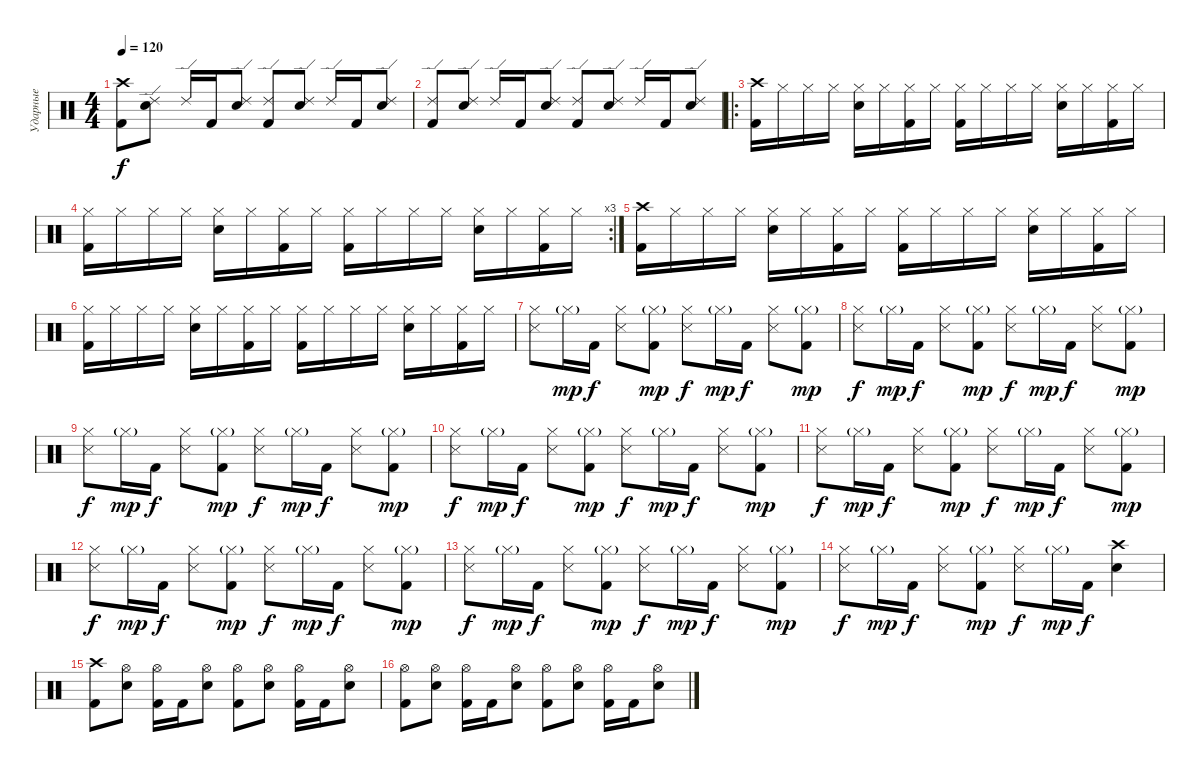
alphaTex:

\track ("Ударные" "Ударные") {instrument percussion}
\staff {score}
\articulation defaults
\ts (4 4)
\tempo 120
\clef neutral
\ks c
("Kick (hit) 2" "Crash high (hit)").8{dy f} ("Electric Snare (hit)" "Ride (edge) 2").8 "Ride (edge) 2".16 "Kick (hit) 2".16 ("Electric Snare (hit)" "Ride (edge) 2").8 ("Kick (hit) 2" "Ride (edge) 2").8 ("Electric Snare (hit)" "Ride (edge) 2").8 "Ride (edge) 2".16 "Kick (hit) 2".16 ("Electric Snare (hit)" "Ride (edge) 2").8 |
("Kick (hit) 2" "Ride (edge) 2").8 ("Electric Snare (hit)" "Ride (edge) 2").8 "Ride (edge) 2".16 "Kick (hit) 2".16 ("Electric Snare (hit)" "Ride (edge) 2").8 ("Kick (hit) 2" "Ride (edge) 2").8 ("Electric Snare (hit)" "Ride (edge) 2").8 "Ride (edge) 2".16 "Kick (hit) 2".16 ("Electric Snare (hit)" "Ride (edge) 2").8 |
\ro
("Kick (hit) 2" "Crash high (hit)").16 "Hi-Hat (closed)".16 "Hi-Hat (closed)".16 "Hi-Hat (closed)".16 ("Electric Snare (hit)" "Hi-Hat (closed)").16 "Hi-Hat (closed)".16 ("Kick (hit) 2" "Hi-Hat (closed)").16 "Hi-Hat (closed)".16 ("Kick (hit) 2" "Hi-Hat (closed)").16 "Hi-Hat (closed)".16 "Hi-Hat (closed)".16 "Hi-Hat (closed)".16 ("Electric Snare (hit)" "Hi-Hat (closed)").16 "Hi-Hat (closed)".16 ("Kick (hit) 2" "Hi-Hat (closed)").16 "Hi-Hat (closed)".16 |
\rc 3
("Kick (hit) 2" "Hi-Hat (closed)").16 "Hi-Hat (closed)".16 "Hi-Hat (closed)".16 "Hi-Hat (closed)".16 ("Electric Snare (hit)" "Hi-Hat (closed)").16 "Hi-Hat (closed)".16 ("Kick (hit) 2" "Hi-Hat (closed)").16 "Hi-Hat (closed)".16 ("Kick (hit) 2" "Hi-Hat (closed)").16 "Hi-Hat (closed)".16 "Hi-Hat (closed)".16 "Hi-Hat (closed)".16 ("Electric Snare (hit)" "Hi-Hat (closed)").16 "Hi-Hat (closed)".16 ("Kick (hit) 2" "Hi-Hat (closed)").16 "Hi-Hat (closed)".16 |
("Kick (hit) 2" "Crash high (hit)").16 "Hi-Hat (closed)".16 "Hi-Hat (closed)".16 "Hi-Hat (closed)".16 ("Electric Snare (hit)" "Hi-Hat (closed)").16 "Hi-Hat (closed)".16 ("Kick (hit) 2" "Hi-Hat (closed)").16 "Hi-Hat (closed)".16 ("Kick (hit) 2" "Hi-Hat (closed)").16 "Hi-Hat (closed)".16 "Hi-Hat (closed)".16 "Hi-Hat (closed)".16 ("Electric Snare (hit)" "Hi-Hat (closed)").16 "Hi-Hat (closed)".16 ("Kick (hit) 2" "Hi-Hat (closed)").16 "Hi-Hat (closed)".16 |
("Kick (hit) 2" "Hi-Hat (closed)").16 "Hi-Hat (closed)".16 "Hi-Hat (closed)".16 "Hi-Hat (closed)".16 ("Electric Snare (hit)" "Hi-Hat (closed)").16 "Hi-Hat (closed)".16 ("Kick (hit) 2" "Hi-Hat (closed)").16 "Hi-Hat (closed)".16 ("Kick (hit) 2" "Hi-Hat (closed)").16 "Hi-Hat (closed)".16 "Hi-Hat (closed)".16 "Hi-Hat (closed)".16 ("Electric Snare (hit)" "Hi-Hat (closed)").16 "Hi-Hat (closed)".16 ("Kick (hit) 2" "Hi-Hat (closed)").16 "Hi-Hat (closed)".16 |
("Snare (side stick) 3" "Hi-Hat (closed)").8 "Hi-Hat (closed)"{g}.16{dy mp} "Kick (hit) 2".16{dy f} ("Snare (side stick) 3" "Hi-Hat (closed)").8 ("Kick (hit) 2" "Hi-Hat (closed)"{g}).8{dy mp} ("Snare (side stick) 3" "Hi-Hat (closed)").8{dy f} "Hi-Hat (closed)"{g}.16{dy mp} "Kick (hit) 2".16{dy f} ("Snare (side stick) 3" "Hi-Hat (closed)").8 ("Kick (hit) 2" "Hi-Hat (closed)"{g}).8{dy mp} |
("Snare (side stick) 3" "Hi-Hat (closed)").8{dy f} "Hi-Hat (closed)"{g}.16{dy mp} "Kick (hit) 2".16{dy f} ("Snare (side stick) 3" "Hi-Hat (closed)").8 ("Kick (hit) 2" "Hi-Hat (closed)"{g}).8{dy mp} ("Snare (side stick) 3" "Hi-Hat (closed)").8{dy f} "Hi-Hat (closed)"{g}.16{dy mp} "Kick (hit) 2".16{dy f} ("Snare (side stick) 3" "Hi-Hat (closed)").8 ("Kick (hit) 2" "Hi-Hat (closed)"{g}).8{dy mp} |
("Snare (side stick) 3" "Hi-Hat (closed)").8{dy f} "Hi-Hat (closed)"{g}.16{dy mp} "Kick (hit) 2".16{dy f} ("Snare (side stick) 3" "Hi-Hat (closed)").8 ("Kick (hit) 2" "Hi-Hat (closed)"{g}).8{dy mp} ("Snare (side stick) 3" "Hi-Hat (closed)").8{dy f} "Hi-Hat (closed)"{g}.16{dy mp} "Kick (hit) 2".16{dy f} ("Snare (side stick) 3" "Hi-Hat (closed)").8 ("Kick (hit) 2" "Hi-Hat (closed)"{g}).8{dy mp} |
("Snare (side stick) 3" "Hi-Hat (closed)").8{dy f} "Hi-Hat (closed)"{g}.16{dy mp} "Kick (hit) 2".16{dy f} ("Snare (side stick) 3" "Hi-Hat (closed)").8 ("Kick (hit) 2" "Hi-Hat (closed)"{g}).8{dy mp} ("Snare (side stick) 3" "Hi-Hat (closed)").8{dy f} "Hi-Hat (closed)"{g}.16{dy mp} "Kick (hit) 2".16{dy f} ("Snare (side stick) 3" "Hi-Hat (closed)").8 ("Kick (hit) 2" "Hi-Hat (closed)"{g}).8{dy mp} |
("Snare (side stick) 3" "Hi-Hat (closed)").8{dy f} "Hi-Hat (closed)"{g}.16{dy mp} "Kick (hit) 2".16{dy f} ("Snare (side stick) 3" "Hi-Hat (closed)").8 ("Kick (hit) 2" "Hi-Hat (closed)"{g}).8{dy mp} ("Snare (side stick) 3" "Hi-Hat (closed)").8{dy f} "Hi-Hat (closed)"{g}.16{dy mp} "Kick (hit) 2".16{dy f} ("Snare (side stick) 3" "Hi-Hat (closed)").8 ("Kick (hit) 2" "Hi-Hat (closed)"{g}).8{dy mp} |
("Snare (side stick) 3" "Hi-Hat (closed)").8{dy f} "Hi-Hat (closed)"{g}.16{dy mp} "Kick (hit) 2".16{dy f} ("Snare (side stick) 3" "Hi-Hat (closed)").8 ("Kick (hit) 2" "Hi-Hat (closed)"{g}).8{dy mp} ("Snare (side stick) 3" "Hi-Hat (closed)").8{dy f} "Hi-Hat (closed)"{g}.16{dy mp} "Kick (hit) 2".16{dy f} ("Snare (side stick) 3" "Hi-Hat (closed)").8 ("Kick (hit) 2" "Hi-Hat (closed)"{g}).8{dy mp} |
("Snare (side stick) 3" "Hi-Hat (closed)").8{dy f} "Hi-Hat (closed)"{g}.16{dy mp} "Kick (hit) 2".16{dy f} ("Snare (side stick) 3" "Hi-Hat (closed)").8 ("Kick (hit) 2" "Hi-Hat (closed)"{g}).8{dy mp} ("Snare (side stick) 3" "Hi-Hat (closed)").8{dy f} "Hi-Hat (closed)"{g}.16{dy mp} "Kick (hit) 2".16{dy f} ("Snare (side stick) 3" "Hi-Hat (closed)").8 ("Kick (hit) 2" "Hi-Hat (closed)"{g}).8{dy mp} |
("Snare (side stick) 3" "Hi-Hat (closed)").8{dy f} "Hi-Hat (closed)"{g}.16{dy mp} "Kick (hit) 2".16{dy f} ("Snare (side stick) 3" "Hi-Hat (closed)").8 ("Kick (hit) 2" "Hi-Hat (closed)"{g}).8{dy mp} ("Snare (side stick) 3" "Hi-Hat (closed)").8{dy f} "Hi-Hat (closed)"{g}.16{dy mp} "Kick (hit) 2".16{dy f} ("Electric Snare (hit)" "Crash high (hit)").4 |
("Kick (hit) 2" "Crash high (hit)").8 ("Electric Snare (hit)" "Hi-Hat (open)").8 ("Kick (hit) 2" "Hi-Hat (open)").16 "Kick (hit) 2".16 ("Electric Snare (hit)" "Hi-Hat (open)").8 ("Kick (hit) 2" "Hi-Hat (open)").8 ("Electric Snare (hit)" "Hi-Hat (open)").8 ("Kick (hit) 2" "Hi-Hat (open)").16 "Kick (hit) 2".16 ("Electric Snare (hit)" "Hi-Hat (open)").8 |
("Kick (hit) 2" "Hi-Hat (open)").8 ("Electric Snare (hit)" "Hi-Hat (open)").8 ("Kick (hit) 2" "Hi-Hat (open)").16 "Kick (hit) 2".16 ("Electric Snare (hit)" "Hi-Hat (open)").8 ("Kick (hit) 2" "Hi-Hat (open)").8 ("Electric Snare (hit)" "Hi-Hat (open)").8 ("Kick (hit) 2" "Hi-Hat (open)").16 "Kick (hit) 2".16 ("Electric Snare (hit)" "Hi-Hat (open)").8
